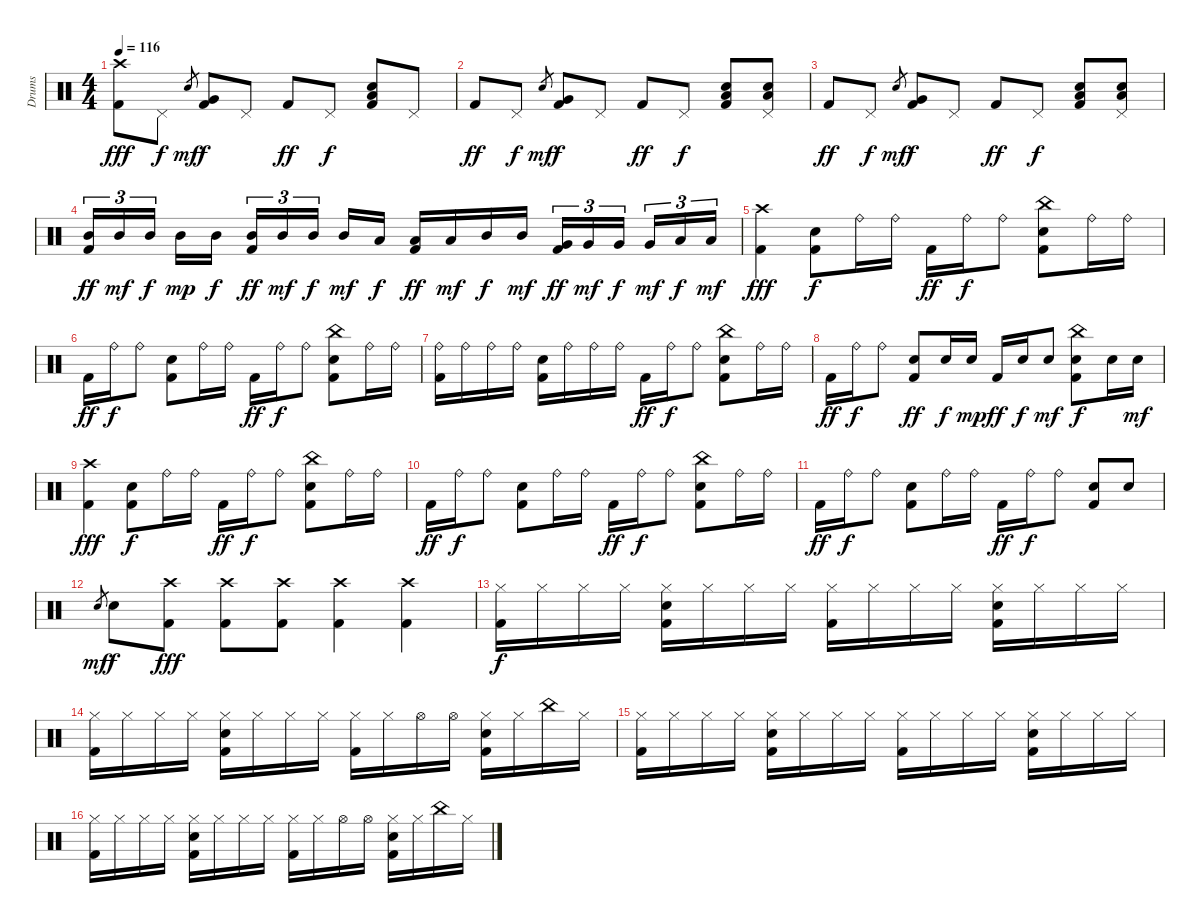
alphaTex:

\track ("Drums" "Drums") {instrument percussion}
\staff {score}
\articulation defaults
\ts (4 4)
\tempo 116
\clef neutral
\ks c
("Crash high (hit)" "Kick (hit) 2").8{dy fff} "Pedal Hi-Hat (hit)".8{dy f} "Snare (hit)".8{gr dy mf} ("Very Low Tom (hit)" "Kick (hit) 2").8{dy f} "Pedal Hi-Hat (hit)".8 "Kick (hit) 2".8{dy ff} "Pedal Hi-Hat (hit)".8{dy f} ("Snare (hit) 2" "Low Floor Tom (hit)" "Kick (hit) 2").8 "Pedal Hi-Hat (hit)".8 |
"Kick (hit) 2".8{dy ff} "Pedal Hi-Hat (hit)".8{dy f} "Snare (hit)".8{gr dy mf} ("Very Low Tom (hit)" "Kick (hit) 2").8{dy f} "Pedal Hi-Hat (hit)".8 "Kick (hit) 2".8{dy ff} "Pedal Hi-Hat (hit)".8{dy f} ("Snare (hit) 2" "Low Floor Tom (hit)" "Kick (hit) 2").8 ("Snare (hit) 2" "Low Floor Tom (hit)" "Pedal Hi-Hat (hit)").8 |
"Kick (hit) 2".8{dy ff} "Pedal Hi-Hat (hit)".8{dy f} "Snare (hit)".8{gr dy mf} ("Very Low Tom (hit)" "Kick (hit) 2").8{dy f} "Pedal Hi-Hat (hit)".8 "Kick (hit) 2".8{dy ff} "Pedal Hi-Hat (hit)".8{dy f} ("Snare (hit) 2" "Low Floor Tom (hit)" "Kick (hit) 2").8 ("Snare (hit) 2" "Low Floor Tom (hit)" "Pedal Hi-Hat (hit)").8 |
("Mid Tom (hit)" "Kick (hit) 2").16{tu (3 2) dy ff} "Mid Tom (hit)".16{tu (3 2) dy mf} "Mid Tom (hit)".16{tu (3 2) dy f} "Mid Tom (hit)".16{dy mp} "Mid Tom (hit)".16{dy f} ("Mid Tom (hit)" "Kick (hit) 2").16{tu (3 2) dy ff} "Mid Tom (hit)".16{tu (3 2) dy mf} "Mid Tom (hit)".16{tu (3 2) dy f} "Mid Tom (hit)".16{dy mf} "Low Tom (hit)".16{dy f} ("Low Tom (hit)" "Kick (hit) 2").16{dy ff} "Low Tom (hit)".16{dy mf} "Mid Tom (hit)".16{dy f} "Mid Tom (hit)".16{dy mf} ("Very Low Tom (hit)" "Kick (hit) 2").16{tu (3 2) dy ff} "Very Low Tom (hit)".16{tu (3 2) dy mf} "Very Low Tom (hit)".16{tu (3 2) dy f} "Very Low Tom (hit)".16{tu (3 2) dy mf} "Low Floor Tom (hit)".16{tu (3 2) dy f} "Low Floor Tom (hit)".16{tu (3 2) dy mf} |
("Crash high (hit)" "Kick (hit) 2").4{dy fff} ("Snare (hit) 2" "Kick (hit) 2").8{dy f} "Ride (bell)".16 "Ride (bell)".16 "Kick (hit) 2".16{dy ff} "Ride (bell)".16{dy f} "Ride (bell)".8 ("China (hit)" "Snare (hit) 2" "Kick (hit) 2").8 "Ride (bell)".16 "Ride (bell)".16 |
"Kick (hit) 2".16{dy ff} "Ride (bell)".16{dy f} "Ride (bell)".8 ("Snare (hit) 2" "Kick (hit) 2").8 "Ride (bell)".16 "Ride (bell)".16 "Kick (hit) 2".16{dy ff} "Ride (bell)".16{dy f} "Ride (bell)".8 ("China (hit)" "Snare (hit) 2" "Kick (hit) 2").8 "Ride (bell)".16 "Ride (bell)".16 |
("Ride (bell)" "Kick (hit) 2").16 "Ride (bell)".16 "Ride (bell)".16 "Ride (bell)".16 ("Snare (hit) 2" "Kick (hit) 2").16 "Ride (bell)".16 "Ride (bell)".16 "Ride (bell)".16 "Kick (hit) 2".16{dy ff} "Ride (bell)".16{dy f} "Ride (bell)".8 ("China (hit)" "Snare (hit) 2" "Kick (hit) 2").8 "Ride (bell)".16 "Ride (bell)".16 |
"Kick (hit) 2".16{dy ff} "Ride (bell)".16{dy f} "Ride (bell)".8 ("Snare (hit) 2" "Kick (hit) 2").8{dy ff} "Snare (hit) 2".16{dy f} "Snare (hit) 2".16{dy mp} "Kick (hit) 2".16{dy ff} "Snare (hit) 2".16{dy f} "Snare (hit) 2".8{dy mf} ("China (hit)" "Snare (hit) 2" "Kick (hit) 2").8{dy f} "Snare (hit) 2".16 "Snare (hit) 2".16{dy mf} |
("Crash high (hit)" "Kick (hit) 2").4{dy fff} ("Snare (hit) 2" "Kick (hit) 2").8{dy f} "Ride (bell)".16 "Ride (bell)".16 "Kick (hit) 2".16{dy ff} "Ride (bell)".16{dy f} "Ride (bell)".8 ("China (hit)" "Snare (hit) 2" "Kick (hit) 2").8 "Ride (bell)".16 "Ride (bell)".16 |
"Kick (hit) 2".16{dy ff} "Ride (bell)".16{dy f} "Ride (bell)".8 ("Snare (hit) 2" "Kick (hit) 2").8 "Ride (bell)".16 "Ride (bell)".16 "Kick (hit) 2".16{dy ff} "Ride (bell)".16{dy f} "Ride (bell)".8 ("China (hit)" "Snare (hit) 2" "Kick (hit) 2").8 "Ride (bell)".16 "Ride (bell)".16 |
"Kick (hit) 2".16{dy ff} "Ride (bell)".16{dy f} "Ride (bell)".8 ("Snare (hit) 2" "Kick (hit) 2").8 "Ride (bell)".16 "Ride (bell)".16 "Kick (hit) 2".16{dy ff} "Ride (bell)".16{dy f} "Ride (bell)".8 ("Snare (hit) 2" "Kick (hit) 2").8 "Snare (hit) 2".8 |
"Snare (hit)".8{gr dy mf} "Snare (hit) 2".8{dy f} ("Crash high (hit)" "Kick (hit) 2").8{dy fff} ("Crash high (hit)" "Kick (hit) 2").8 ("Crash high (hit)" "Kick (hit) 2").8 ("Crash high (hit)" "Kick (hit) 2").4 ("Crash high (hit)" "Kick (hit) 2").4 |
("Hi-Hat (closed)" "Kick (hit) 2").16{dy f} "Hi-Hat (closed)".16 "Hi-Hat (closed)".16 "Hi-Hat (closed)".16 ("Hi-Hat (closed)" "Snare (hit) 2" "Kick (hit) 2").16 "Hi-Hat (closed)".16 "Hi-Hat (closed)".16 "Hi-Hat (closed)".16 ("Hi-Hat (closed)" "Kick (hit) 2").16 "Hi-Hat (closed)".16 "Hi-Hat (closed)".16 "Hi-Hat (closed)".16 ("Hi-Hat (closed)" "Snare (hit) 2" "Kick (hit) 2").16 "Hi-Hat (closed)".16 "Hi-Hat (closed)".16 "Hi-Hat (closed)".16 |
("Hi-Hat (closed)" "Kick (hit) 2").16 "Hi-Hat (closed)".16 "Hi-Hat (closed)".16 "Hi-Hat (closed)".16 ("Hi-Hat (closed)" "Snare (hit) 2" "Kick (hit) 2").16 "Hi-Hat (closed)".16 "Hi-Hat (closed)".16 "Hi-Hat (closed)".16 ("Hi-Hat (closed)" "Kick (hit) 2").16 "Hi-Hat (closed)".16 "Hi-Hat (open)".16 "Hi-Hat (open)".16 ("Hi-Hat (closed)" "Snare (hit) 2" "Kick (hit) 2").16 "Hi-Hat (closed)".16 "China (hit)".16 "Hi-Hat (closed)".16 |
("Hi-Hat (closed)" "Kick (hit) 2").16 "Hi-Hat (closed)".16 "Hi-Hat (closed)".16 "Hi-Hat (closed)".16 ("Hi-Hat (closed)" "Snare (hit) 2" "Kick (hit) 2").16 "Hi-Hat (closed)".16 "Hi-Hat (closed)".16 "Hi-Hat (closed)".16 ("Hi-Hat (closed)" "Kick (hit) 2").16 "Hi-Hat (closed)".16 "Hi-Hat (closed)".16 "Hi-Hat (closed)".16 ("Hi-Hat (closed)" "Snare (hit) 2" "Kick (hit) 2").16 "Hi-Hat (closed)".16 "Hi-Hat (closed)".16 "Hi-Hat (closed)".16 |
("Hi-Hat (closed)" "Kick (hit) 2").16 "Hi-Hat (closed)".16 "Hi-Hat (closed)".16 "Hi-Hat (closed)".16 ("Hi-Hat (closed)" "Snare (hit) 2" "Kick (hit) 2").16 "Hi-Hat (closed)".16 "Hi-Hat (closed)".16 "Hi-Hat (closed)".16 ("Hi-Hat (closed)" "Kick (hit) 2").16 "Hi-Hat (closed)".16 "Hi-Hat (open)".16 "Hi-Hat (open)".16 ("Hi-Hat (closed)" "Snare (hit) 2" "Kick (hit) 2").16 "Hi-Hat (closed)".16 "China (hit)".16 "Hi-Hat (closed)".16
